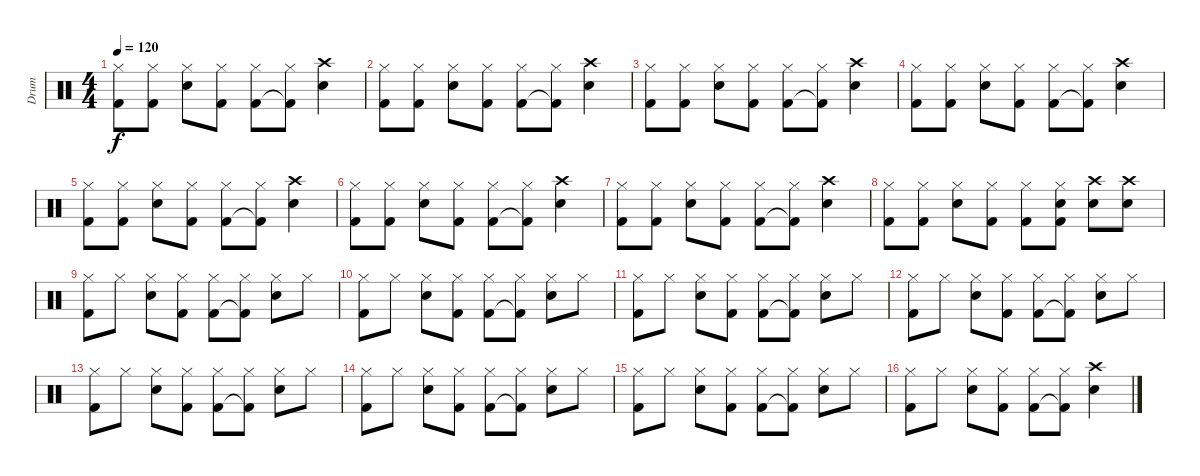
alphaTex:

\track ("Drum" "Drum") {instrument percussion}
\staff {score}
\articulation defaults
\ts (4 4)
\tempo 120
\clef neutral
\ks c
("Hi-Hat (closed)" "Kick (hit) 2").8{dy f} ("Hi-Hat (closed)" "Kick (hit) 2").8 ("Hi-Hat (closed)" "Snare (hit) 2").8 ("Hi-Hat (closed)" "Kick (hit) 2").8 ("Hi-Hat (closed)" "Kick (hit) 2").8 ("Hi-Hat (closed)" "Kick (hit) 2"{t}).8 ("Crash high (hit)" "Snare (hit) 2").4 |
("Hi-Hat (closed)" "Kick (hit) 2").8 ("Hi-Hat (closed)" "Kick (hit) 2").8 ("Hi-Hat (closed)" "Snare (hit) 2").8 ("Hi-Hat (closed)" "Kick (hit) 2").8 ("Hi-Hat (closed)" "Kick (hit) 2").8 ("Hi-Hat (closed)" "Kick (hit) 2"{t}).8 ("Crash high (hit)" "Snare (hit) 2").4 |
("Hi-Hat (closed)" "Kick (hit) 2").8 ("Hi-Hat (closed)" "Kick (hit) 2").8 ("Hi-Hat (closed)" "Snare (hit) 2").8 ("Hi-Hat (closed)" "Kick (hit) 2").8 ("Hi-Hat (closed)" "Kick (hit) 2").8 ("Hi-Hat (closed)" "Kick (hit) 2"{t}).8 ("Crash high (hit)" "Snare (hit) 2").4 |
("Hi-Hat (closed)" "Kick (hit) 2").8 ("Hi-Hat (closed)" "Kick (hit) 2").8 ("Hi-Hat (closed)" "Snare (hit) 2").8 ("Hi-Hat (closed)" "Kick (hit) 2").8 ("Hi-Hat (closed)" "Kick (hit) 2").8 ("Hi-Hat (closed)" "Kick (hit) 2"{t}).8 ("Crash high (hit)" "Snare (hit) 2").4 |
("Hi-Hat (closed)" "Kick (hit) 2").8 ("Hi-Hat (closed)" "Kick (hit) 2").8 ("Hi-Hat (closed)" "Snare (hit) 2").8 ("Hi-Hat (closed)" "Kick (hit) 2").8 ("Hi-Hat (closed)" "Kick (hit) 2").8 ("Hi-Hat (closed)" "Kick (hit) 2"{t}).8 ("Crash high (hit)" "Snare (hit) 2").4 |
("Hi-Hat (closed)" "Kick (hit) 2").8 ("Hi-Hat (closed)" "Kick (hit) 2").8 ("Hi-Hat (closed)" "Snare (hit) 2").8 ("Hi-Hat (closed)" "Kick (hit) 2").8 ("Hi-Hat (closed)" "Kick (hit) 2").8 ("Hi-Hat (closed)" "Kick (hit) 2"{t}).8 ("Crash high (hit)" "Snare (hit) 2").4 |
("Hi-Hat (closed)" "Kick (hit) 2").8 ("Hi-Hat (closed)" "Kick (hit) 2").8 ("Hi-Hat (closed)" "Snare (hit) 2").8 ("Hi-Hat (closed)" "Kick (hit) 2").8 ("Hi-Hat (closed)" "Kick (hit) 2").8 ("Hi-Hat (closed)" "Kick (hit) 2"{t}).8 ("Crash high (hit)" "Snare (hit) 2").4 |
("Hi-Hat (closed)" "Kick (hit) 2").8 ("Hi-Hat (closed)" "Kick (hit) 2").8 ("Hi-Hat (closed)" "Snare (hit) 2").8 ("Hi-Hat (closed)" "Kick (hit) 2").8 ("Hi-Hat (closed)" "Kick (hit) 2").8 ("Hi-Hat (closed)" "Snare (hit) 2" "Kick (hit) 2").8 ("Crash high (hit)" "Snare (hit) 2").8 ("Crash high (hit)" "Snare (hit) 2").8 |
("Hi-Hat (closed)" "Kick (hit) 2").8 "Hi-Hat (closed)".8 ("Hi-Hat (closed)" "Snare (hit) 2").8 ("Hi-Hat (closed)" "Kick (hit) 2").8 ("Hi-Hat (closed)" "Kick (hit) 2").8 ("Hi-Hat (closed)" "Kick (hit) 2"{t}).8 ("Hi-Hat (closed)" "Snare (hit) 2").8 "Hi-Hat (closed)".8 |
("Hi-Hat (closed)" "Kick (hit) 2").8 "Hi-Hat (closed)".8 ("Hi-Hat (closed)" "Snare (hit) 2").8 ("Hi-Hat (closed)" "Kick (hit) 2").8 ("Hi-Hat (closed)" "Kick (hit) 2").8 ("Hi-Hat (closed)" "Kick (hit) 2"{t}).8 ("Hi-Hat (closed)" "Snare (hit) 2").8 "Hi-Hat (closed)".8 |
("Hi-Hat (closed)" "Kick (hit) 2").8 "Hi-Hat (closed)".8 ("Hi-Hat (closed)" "Snare (hit) 2").8 ("Hi-Hat (closed)" "Kick (hit) 2").8 ("Hi-Hat (closed)" "Kick (hit) 2").8 ("Hi-Hat (closed)" "Kick (hit) 2"{t}).8 ("Hi-Hat (closed)" "Snare (hit) 2").8 "Hi-Hat (closed)".8 |
("Hi-Hat (closed)" "Kick (hit) 2").8 "Hi-Hat (closed)".8 ("Hi-Hat (closed)" "Snare (hit) 2").8 ("Hi-Hat (closed)" "Kick (hit) 2").8 ("Hi-Hat (closed)" "Kick (hit) 2").8 ("Hi-Hat (closed)" "Kick (hit) 2"{t}).8 ("Hi-Hat (closed)" "Snare (hit) 2").8 "Hi-Hat (closed)".8 |
("Hi-Hat (closed)" "Kick (hit) 2").8 "Hi-Hat (closed)".8 ("Hi-Hat (closed)" "Snare (hit) 2").8 ("Hi-Hat (closed)" "Kick (hit) 2").8 ("Hi-Hat (closed)" "Kick (hit) 2").8 ("Hi-Hat (closed)" "Kick (hit) 2"{t}).8 ("Hi-Hat (closed)" "Snare (hit) 2").8 "Hi-Hat (closed)".8 |
("Hi-Hat (closed)" "Kick (hit) 2").8 "Hi-Hat (closed)".8 ("Hi-Hat (closed)" "Snare (hit) 2").8 ("Hi-Hat (closed)" "Kick (hit) 2").8 ("Hi-Hat (closed)" "Kick (hit) 2").8 ("Hi-Hat (closed)" "Kick (hit) 2"{t}).8 ("Hi-Hat (closed)" "Snare (hit) 2").8 "Hi-Hat (closed)".8 |
("Hi-Hat (closed)" "Kick (hit) 2").8 "Hi-Hat (closed)".8 ("Hi-Hat (closed)" "Snare (hit) 2").8 ("Hi-Hat (closed)" "Kick (hit) 2").8 ("Hi-Hat (closed)" "Kick (hit) 2").8 ("Hi-Hat (closed)" "Kick (hit) 2"{t}).8 ("Hi-Hat (closed)" "Snare (hit) 2").8 "Hi-Hat (closed)".8 |
("Hi-Hat (closed)" "Kick (hit) 2").8 "Hi-Hat (closed)".8 ("Hi-Hat (closed)" "Snare (hit) 2").8 ("Hi-Hat (closed)" "Kick (hit) 2").8 ("Hi-Hat (closed)" "Kick (hit) 2").8 ("Hi-Hat (closed)" "Kick (hit) 2"{t}).8 ("Crash high (hit)" "Snare (hit) 2").4
